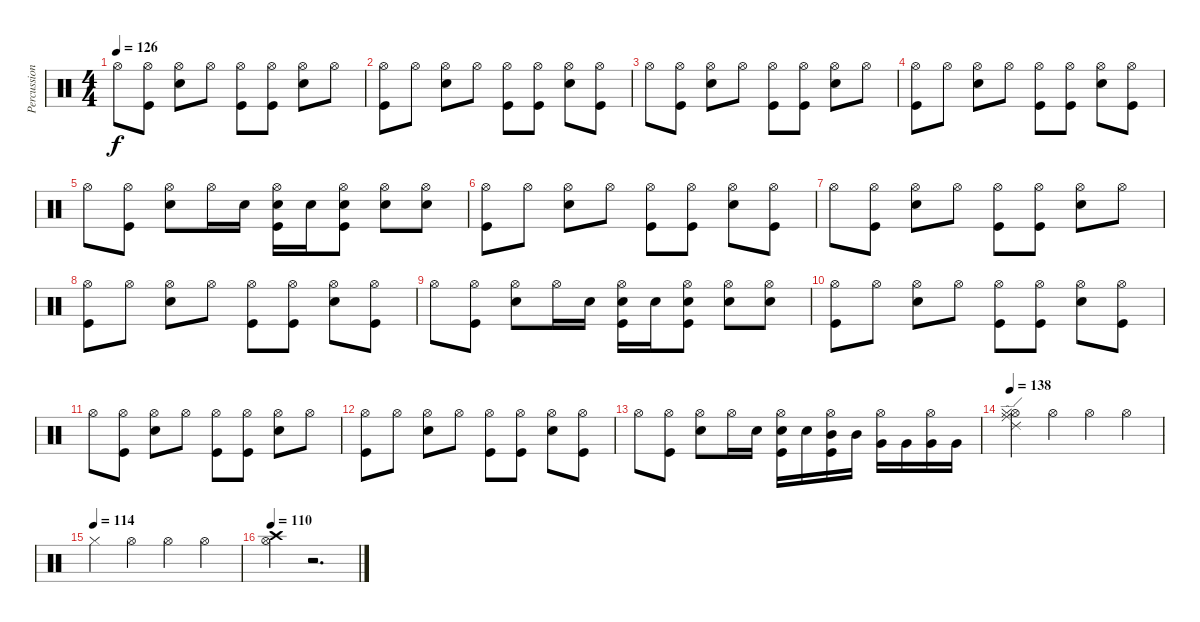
\track ("Percussion" "Percussion") {instrument percussion}
\staff {score}
\articulation defaults
\ts (4 4)
\tempo 126
\clef neutral
\ks c "Hi-Hat (open)".8{dy f}
("Hi-Hat (open)" "Kick (hit)").8 ("Hi-Hat (open)" "Electric Snare (hit)").8 "Hi-Hat (open)".8 ("Hi-Hat (open)" "Kick (hit)").8 ("Hi-Hat (open)" "Kick (hit)").8 ("Hi-Hat (open)" "Electric Snare (hit)").8 "Hi-Hat (open)".8 |
("Hi-Hat (open)" "Kick (hit)").8 "Hi-Hat (open)".8 ("Electric Snare (hit)" "Hi-Hat (open)").8 "Hi-Hat (open)".8 ("Kick (hit)" "Hi-Hat (open)").8 ("Hi-Hat (open)" "Kick (hit)").8 ("Hi-Hat (open)" "Electric Snare (hit)").8 ("Kick (hit)" "Hi-Hat (open)").8 |
"Hi-Hat (open)".8 ("Kick (hit)" "Hi-Hat (open)").8 ("Electric Snare (hit)" "Hi-Hat (open)").8 "Hi-Hat (open)".8 ("Kick (hit)" "Hi-Hat (open)").8 ("Kick (hit)" "Hi-Hat (open)").8 ("Electric Snare (hit)" "Hi-Hat (open)").8 "Hi-Hat (open)".8 |
("Hi-Hat (open)" "Kick (hit)").8 "Hi-Hat (open)".8 ("Hi-Hat (open)" "Electric Snare (hit)").8 "Hi-Hat (open)".8 ("Hi-Hat (open)" "Kick (hit)").8 ("Hi-Hat (open)" "Kick (hit)").8 ("Hi-Hat (open)" "Electric Snare (hit)").8 ("Kick (hit)" "Hi-Hat (open)").8 |
"Hi-Hat (open)".8 ("Hi-Hat (open)" "Kick (hit)").8 ("Hi-Hat (open)" "Electric Snare (hit)").8 "Hi-Hat (open)".16 "Electric Snare (hit)".16 ("Kick (hit)" "Electric Snare (hit)" "Hi-Hat (open)").16 "Electric Snare (hit)".16 ("Electric Snare (hit)" "Hi-Hat (open)" "Kick (hit)").8 ("Hi-Hat (open)" "Electric Snare (hit)").8 ("Electric Snare (hit)" "Hi-Hat (open)").8 |
("Hi-Hat (open)" "Kick (hit)").8 "Hi-Hat (open)".8 ("Electric Snare (hit)" "Hi-Hat (open)").8 "Hi-Hat (open)".8 ("Kick (hit)" "Hi-Hat (open)").8 ("Hi-Hat (open)" "Kick (hit)").8 ("Hi-Hat (open)" "Electric Snare (hit)").8 ("Kick (hit)" "Hi-Hat (open)").8 |
"Hi-Hat (open)".8 ("Kick (hit)" "Hi-Hat (open)").8 ("Electric Snare (hit)" "Hi-Hat (open)").8 "Hi-Hat (open)".8 ("Kick (hit)" "Hi-Hat (open)").8 ("Kick (hit)" "Hi-Hat (open)").8 ("Electric Snare (hit)" "Hi-Hat (open)").8 "Hi-Hat (open)".8 |
("Hi-Hat (open)" "Kick (hit)").8 "Hi-Hat (open)".8 ("Hi-Hat (open)" "Electric Snare (hit)").8 "Hi-Hat (open)".8 ("Hi-Hat (open)" "Kick (hit)").8 ("Hi-Hat (open)" "Kick (hit)").8 ("Hi-Hat (open)" "Electric Snare (hit)").8 ("Kick (hit)" "Hi-Hat (open)").8 |
"Hi-Hat (open)".8 ("Hi-Hat (open)" "Kick (hit)").8 ("Hi-Hat (open)" "Electric Snare (hit)").8 "Hi-Hat (open)".16 "Electric Snare (hit)".16 ("Kick (hit)" "Electric Snare (hit)" "Hi-Hat (open)").16 "Electric Snare (hit)".16 ("Electric Snare (hit)" "Hi-Hat (open)" "Kick (hit)").8 ("Hi-Hat (open)" "Electric Snare (hit)").8 ("Electric Snare (hit)" "Hi-Hat (open)").8 |
("Hi-Hat (open)" "Kick (hit)").8 "Hi-Hat (open)".8 ("Electric Snare (hit)" "Hi-Hat (open)").8 "Hi-Hat (open)".8 ("Kick (hit)" "Hi-Hat (open)").8 ("Hi-Hat (open)" "Kick (hit)").8 ("Hi-Hat (open)" "Electric Snare (hit)").8 ("Kick (hit)" "Hi-Hat (open)").8 |
"Hi-Hat (open)".8 ("Kick (hit)" "Hi-Hat (open)").8 ("Electric Snare (hit)" "Hi-Hat (open)").8 "Hi-Hat (open)".8 ("Kick (hit)" "Hi-Hat (open)").8 ("Kick (hit)" "Hi-Hat (open)").8 ("Electric Snare (hit)" "Hi-Hat (open)").8 "Hi-Hat (open)".8 |
("Hi-Hat (open)" "Kick (hit)").8 "Hi-Hat (open)".8 ("Hi-Hat (open)" "Electric Snare (hit)").8 "Hi-Hat (open)".8 ("Hi-Hat (open)" "Kick (hit)").8 ("Hi-Hat (open)" "Kick (hit)").8 ("Hi-Hat (open)" "Electric Snare (hit)").8 ("Kick (hit)" "Hi-Hat (open)").8 |
"Hi-Hat (open)".8 ("Hi-Hat (open)" "Kick (hit)").8 ("Hi-Hat (open)" "Electric Snare (hit)").8 "Hi-Hat (open)".16 "Electric Snare (hit)".16 ("Kick (hit)" "Electric Snare (hit)" "Hi-Hat (open)").16 "Electric Snare (hit)".16 ("Mid Tom (hit)" "Hi-Hat (open)" "Kick (hit)").16 "Mid Tom (hit)".16 ("Very Low Tom (hit)" "Hi-Hat (open)").16 "Very Low Tom (hit)".16 ("Hi-Hat (open)" "Very Low Tom (hit)").16 "Very Low Tom (hit)".16 |
\tempo 138
("Hi-Hat (open)" "Ride (edge) 2" "Ride (middle)" "Hi-Hat (closed)").4 "Hi-Hat (open)".4 "Hi-Hat (open)".4 "Hi-Hat (open)".4 |
\tempo (114)
"Hi-Hat (closed)".4 "Hi-Hat (open)".4 "Hi-Hat (open)".4 "Hi-Hat (open)".4 |
\tempo 110
("Hi-Hat (open)" "Crash high (hit)").4 r.2{d}
